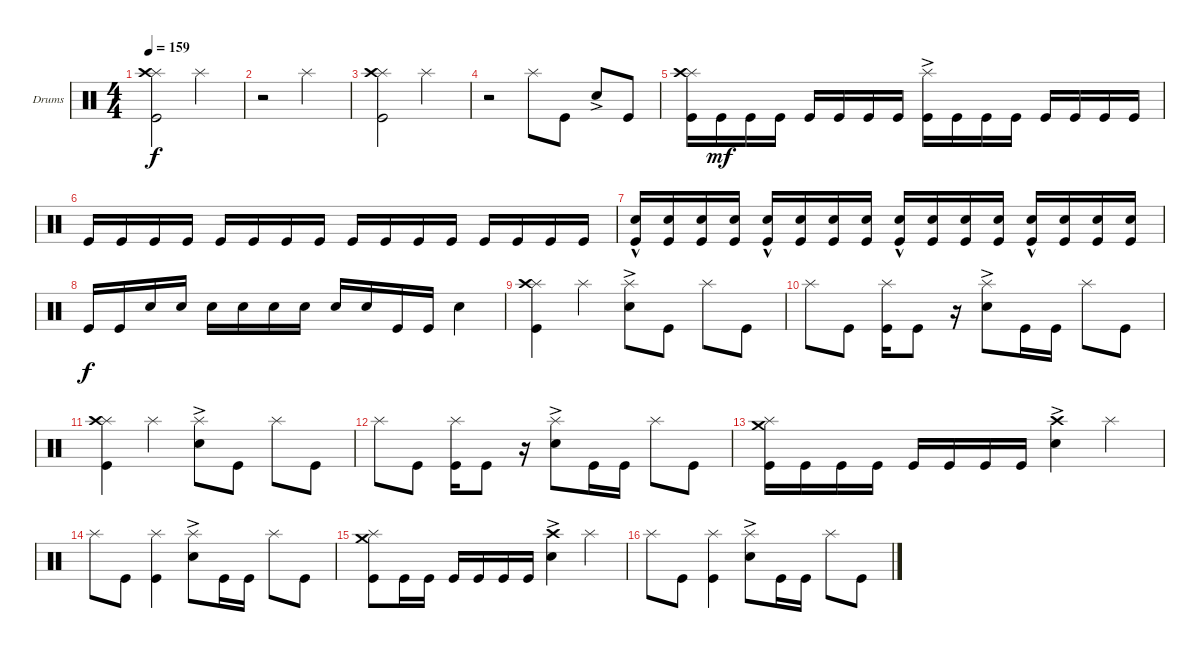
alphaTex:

\defaultSystemsLayout 4
\bracketExtendMode groupsimilarinstruments
\firstSystemTrackNameOrientation horizontal
\otherSystemsTrackNameOrientation horizontal
\track ("Drumkit" "Drums") {instrument percussion}
\staff {score}
\articulation defaults
\ts (4 4)
\tempo 159
\clef neutral
\ks c
("Kick (hit)" "Splash (hit)" "Crash high (hit)").2{dy f} "Splash (hit)".2 |
r.2 "Splash (hit)".2 |
("Kick (hit)" "Splash (hit)" "Crash high (hit)").2 "Splash (hit)".2 |
r.2 "Splash (hit)".8 "Kick (hit)".8 "Snare (hit) 2"{ac}.8 "Kick (hit)".8 |
("Kick (hit)" "Splash (hit)" "Crash high (hit)").16 "Kick (hit)".16{dy mf} "Kick (hit)".16 "Kick (hit)".16 "Kick (hit)".16 "Kick (hit)".16 "Kick (hit)".16 "Kick (hit)".16 ("Kick (hit)" "Splash (hit)"{ac}).16 "Kick (hit)".16 "Kick (hit)".16 "Kick (hit)".16 "Kick (hit)".16 "Kick (hit)".16 "Kick (hit)".16 "Kick (hit)".16 |
"Kick (hit)".16 "Kick (hit)".16 "Kick (hit)".16 "Kick (hit)".16 "Kick (hit)".16 "Kick (hit)".16 "Kick (hit)".16 "Kick (hit)".16 "Kick (hit)".16 "Kick (hit)".16 "Kick (hit)".16 "Kick (hit)".16 "Kick (hit)".16 "Kick (hit)".16 "Kick (hit)".16 "Kick (hit)".16 |
("Kick (hit)" "Snare (hit) 2"{hac}).16 ("Kick (hit)" "Snare (hit) 2").16 ("Kick (hit)" "Snare (hit) 2").16 ("Kick (hit)" "Snare (hit) 2").16 ("Kick (hit)" "Snare (hit) 2"{hac}).16 ("Kick (hit)" "Snare (hit) 2").16 ("Kick (hit)" "Snare (hit) 2").16 ("Kick (hit)" "Snare (hit) 2").16 ("Kick (hit)" "Snare (hit) 2"{hac}).16 ("Kick (hit)" "Snare (hit) 2").16 ("Kick (hit)" "Snare (hit) 2").16 ("Kick (hit)" "Snare (hit) 2").16 ("Kick (hit)" "Snare (hit) 2"{hac}).16 ("Kick (hit)" "Snare (hit) 2").16 ("Kick (hit)" "Snare (hit) 2").16 ("Kick (hit)" "Snare (hit) 2").16 |
"Kick (hit)".16{dy f} "Kick (hit)".16 "Snare (hit) 2".16 "Snare (hit) 2".16 "Snare (hit) 2".16 "Snare (hit) 2".16 "Snare (hit) 2".16 "Snare (hit) 2".16 "Snare (hit) 2".16 "Snare (hit) 2".16 "Kick (hit)".16 "Kick (hit)".16 "Snare (hit) 2".4 |
("Kick (hit)" "Splash (hit)" "Crash high (hit)").4 "Splash (hit)".4 ("Splash (hit)" "Snare (hit) 2"{ac}).8 "Kick (hit)".8 "Splash (hit)".8 "Kick (hit)".8 |
"Splash (hit)".8 "Kick (hit)".8 ("Kick (hit)" "Splash (hit)").16 "Kick (hit)".8 r.16 ("Splash (hit)" "Snare (hit) 2"{ac}).8 "Kick (hit)".16 "Kick (hit)".16 "Splash (hit)".8 "Kick (hit)".8 |
("Kick (hit)" "Splash (hit)" "Crash high (hit)").4 "Splash (hit)".4 ("Splash (hit)" "Snare (hit) 2"{ac}).8 "Kick (hit)".8 "Splash (hit)".8 "Kick (hit)".8 |
"Splash (hit)".8 "Kick (hit)".8 ("Kick (hit)" "Splash (hit)").16 "Kick (hit)".8 r.16 ("Splash (hit)" "Snare (hit) 2"{ac}).8 "Kick (hit)".16 "Kick (hit)".16 "Splash (hit)".8 "Kick (hit)".8 |
("Kick (hit)" "Splash (hit)" "Crash medium (hit)").16 "Kick (hit)".16 "Kick (hit)".16 "Kick (hit)".16 "Kick (hit)".16 "Kick (hit)".16 "Kick (hit)".16 "Kick (hit)".16 ("Snare (hit) 2"{ac} "Crash high (hit)").4 "Splash (hit)".4 |
"Splash (hit)".8 "Kick (hit)".8 ("Kick (hit)" "Splash (hit)").4 ("Splash (hit)" "Snare (hit) 2"{ac}).8 "Kick (hit)".16 "Kick (hit)".16 "Splash (hit)".8 "Kick (hit)".8 |
("Kick (hit)" "Splash (hit)" "Crash medium (hit)").8 "Kick (hit)".16 "Kick (hit)".16 "Kick (hit)".16 "Kick (hit)".16 "Kick (hit)".16 "Kick (hit)".16 ("Snare (hit) 2"{ac} "Crash high (hit)").4 "Splash (hit)".4 |
"Splash (hit)".8 "Kick (hit)".8 ("Kick (hit)" "Splash (hit)").4 ("Splash (hit)" "Snare (hit) 2"{ac}).8 "Kick (hit)".16 "Kick (hit)".16 "Splash (hit)".8 "Kick (hit)".8
